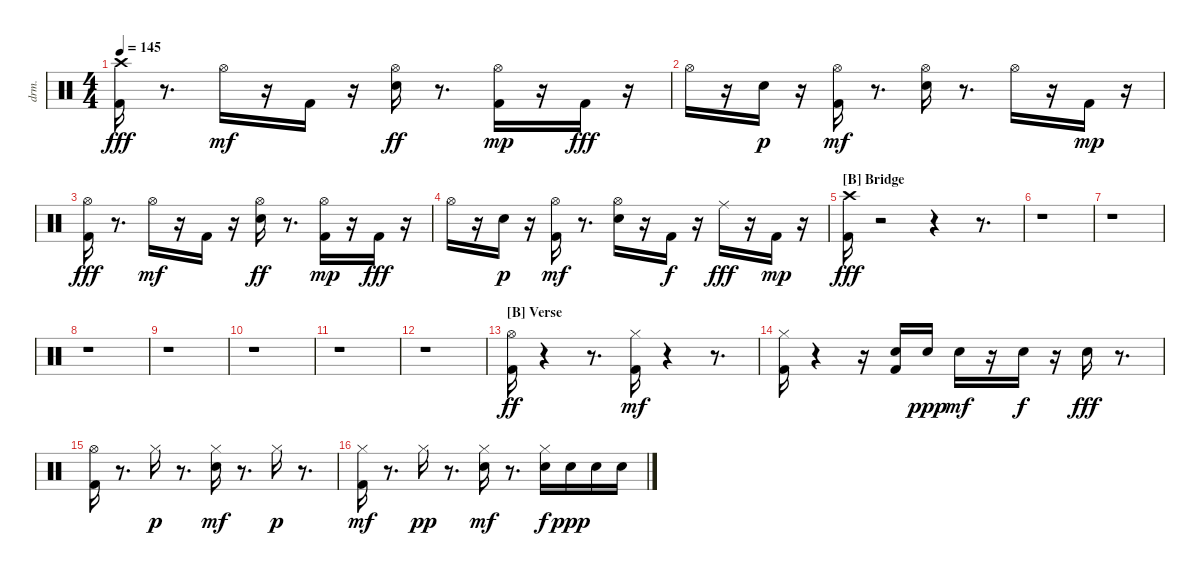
\bracketExtendMode nobrackets
\track ("EZdrummer 3" "drm.") {instrument percussion}
\staff {score}
\articulation defaults
\ts (4 4)
\tempo 145
\clef neutral
\ks aminor
("Kick (hit) 2" "Crash high (hit)"{acc #}).16{dy fff} r.8{d} "Hi-Hat (open)"{acc #}.16{dy mf} r.16 "Kick (hit) 2".16 r.16 ("Snare (hit) 2" "Hi-Hat (open)"{acc #}).16{dy ff} r.8{d} ("Kick (hit) 2" "Hi-Hat (open)"{acc #}).16{dy mp} r.16 "Kick (hit) 2".16{dy fff} r.16 |
"Hi-Hat (open)"{acc #}.16 r.16 "Snare (hit) 2".16{dy p} r.16 ("Kick (hit) 2" "Hi-Hat (open)"{acc #}).16{dy mf} r.8{d} ("Snare (hit) 2" "Hi-Hat (open)"{acc #}).16 r.8{d} "Hi-Hat (open)"{acc #}.16 r.16 "Kick (hit) 2".16{dy mp} r.16 |
("Kick (hit) 2" "Hi-Hat (open)"{acc #}).16{dy fff} r.8{d} "Hi-Hat (open)"{acc #}.16{dy mf} r.16 "Kick (hit) 2".16 r.16 ("Snare (hit) 2" "Hi-Hat (open)"{acc #}).16{dy ff} r.8{d} ("Kick (hit) 2" "Hi-Hat (open)"{acc #}).16{dy mp} r.16 "Kick (hit) 2".16{dy fff} r.16 |
"Hi-Hat (open)"{acc #}.16 r.16 "Snare (hit) 2".16{dy p} r.16 ("Kick (hit) 2" "Hi-Hat (open)"{acc #}).16{dy mf} r.8{d} ("Snare (hit) 2" "Hi-Hat (open)"{acc #}).16 r.16 "Kick (hit) 2".16{dy f} r.16 "Ride (middle)"{acc #}.16{dy fff} r.16 "Kick (hit) 2".16{dy mp} r.16 |
\section ("B" "Bridge")
("Kick (hit) 2" "Crash high (hit)"{acc #}).16{dy fff} r.2 r.4 r.8{d} |
r.1 |
r.1 |
r.1 |
r.1 |
r.1 |
r.1 |
r.1 |
\section ("B" "Verse")
("Kick (hit) 2" "Hi-Hat (open)"{acc #}).16{dy ff} r.4 r.8{d} ("Kick (hit) 2" "Hi-Hat (closed)"{acc #}).16{dy mf} r.4 r.8{d} |
("Kick (hit) 2" "Hi-Hat (closed)"{acc #}).16 r.4 r.16 ("Kick (hit) 2" "Snare (hit) 2").16 "Snare (hit) 2".16{dy ppp} "Snare (hit) 2".16{dy mf} r.16 "Snare (hit) 2".16{dy f} r.16 "Snare (hit) 2".16{dy fff} r.8{d} |
("Kick (hit) 2" "Hi-Hat (open)"{acc #}).16 r.8{d} "Hi-Hat (closed)"{acc #}.16{dy p} r.8{d} ("Snare (hit) 2" "Hi-Hat (closed)"{acc #}).16{dy mf} r.8{d} "Hi-Hat (closed)"{acc #}.16{dy p} r.8{d} |
("Kick (hit) 2" "Hi-Hat (closed)"{acc #}).16{dy mf} r.8{d} "Hi-Hat (closed)"{acc #}.16{dy pp} r.8{d} ("Snare (hit) 2" "Hi-Hat (closed)"{acc #}).16{dy mf} r.8{d} ("Snare (hit) 2" "Hi-Hat (closed)"{acc #}).16{dy f} "Snare (hit) 2".16{dy ppp} "Snare (hit) 2".16 "Snare (hit) 2".16
